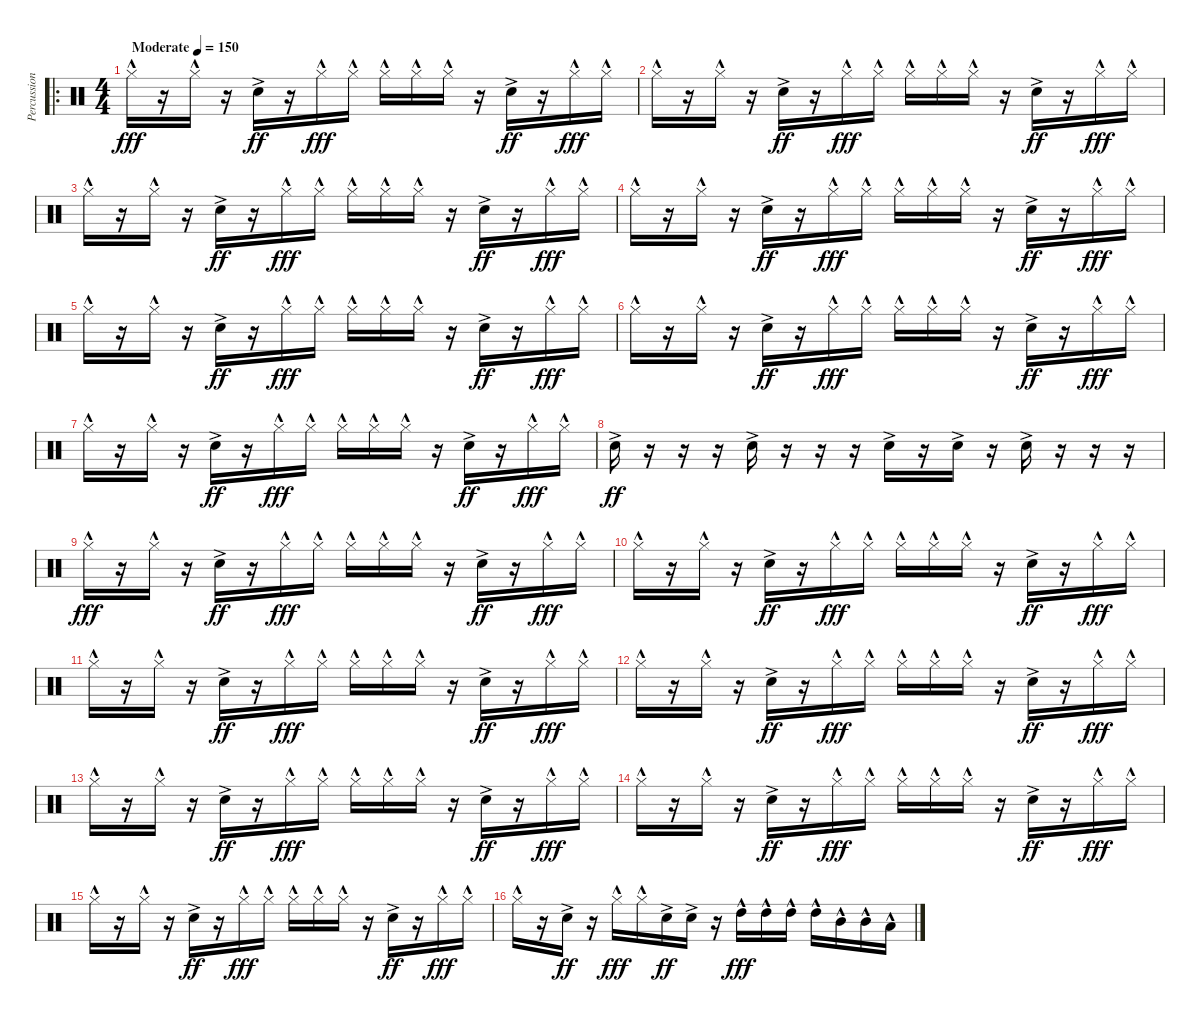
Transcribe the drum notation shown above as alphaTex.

\track ("Percussion" "Percussion") {instrument percussion}
\staff {score}
\articulation defaults
\ro
\ts (4 4)
\tempo (150 "Moderate")
\tempo 151
\tempo (150 "Moderate")
\clef neutral
\ks c "Hi-Hat (closed)"{hac}.16{dy fff}
r.16 "Hi-Hat (closed)"{hac}.16 r.16 "Snare (hit) 2"{ac}.16{dy ff} r.16 "Hi-Hat (closed)"{hac}.16{dy fff} "Hi-Hat (closed)"{hac}.16 "Hi-Hat (closed)"{hac}.16 "Hi-Hat (closed)"{hac}.16 "Hi-Hat (closed)"{hac}.16 r.16 "Snare (hit) 2"{ac}.16{dy ff} r.16 "Hi-Hat (closed)"{hac}.16{dy fff} "Hi-Hat (closed)"{hac}.16 |
"Hi-Hat (closed)"{hac}.16 r.16 "Hi-Hat (closed)"{hac}.16 r.16 "Snare (hit) 2"{ac}.16{dy ff} r.16 "Hi-Hat (closed)"{hac}.16{dy fff} "Hi-Hat (closed)"{hac}.16 "Hi-Hat (closed)"{hac}.16 "Hi-Hat (closed)"{hac}.16 "Hi-Hat (closed)"{hac}.16 r.16 "Snare (hit) 2"{ac}.16{dy ff} r.16 "Hi-Hat (closed)"{hac}.16{dy fff} "Hi-Hat (closed)"{hac}.16 |
"Hi-Hat (closed)"{hac}.16 r.16 "Hi-Hat (closed)"{hac}.16 r.16 "Snare (hit) 2"{ac}.16{dy ff} r.16 "Hi-Hat (closed)"{hac}.16{dy fff} "Hi-Hat (closed)"{hac}.16 "Hi-Hat (closed)"{hac}.16 "Hi-Hat (closed)"{hac}.16 "Hi-Hat (closed)"{hac}.16 r.16 "Snare (hit) 2"{ac}.16{dy ff} r.16 "Hi-Hat (closed)"{hac}.16{dy fff} "Hi-Hat (closed)"{hac}.16 |
"Hi-Hat (closed)"{hac}.16 r.16 "Hi-Hat (closed)"{hac}.16 r.16 "Snare (hit) 2"{ac}.16{dy ff} r.16 "Hi-Hat (closed)"{hac}.16{dy fff} "Hi-Hat (closed)"{hac}.16 "Hi-Hat (closed)"{hac}.16 "Hi-Hat (closed)"{hac}.16 "Hi-Hat (closed)"{hac}.16 r.16 "Snare (hit) 2"{ac}.16{dy ff} r.16 "Hi-Hat (closed)"{hac}.16{dy fff} "Hi-Hat (closed)"{hac}.16 |
"Hi-Hat (closed)"{hac}.16 r.16 "Hi-Hat (closed)"{hac}.16 r.16 "Snare (hit) 2"{ac}.16{dy ff} r.16 "Hi-Hat (closed)"{hac}.16{dy fff} "Hi-Hat (closed)"{hac}.16 "Hi-Hat (closed)"{hac}.16 "Hi-Hat (closed)"{hac}.16 "Hi-Hat (closed)"{hac}.16 r.16 "Snare (hit) 2"{ac}.16{dy ff} r.16 "Hi-Hat (closed)"{hac}.16{dy fff} "Hi-Hat (closed)"{hac}.16 |
"Hi-Hat (closed)"{hac}.16 r.16 "Hi-Hat (closed)"{hac}.16 r.16 "Snare (hit) 2"{ac}.16{dy ff} r.16 "Hi-Hat (closed)"{hac}.16{dy fff} "Hi-Hat (closed)"{hac}.16 "Hi-Hat (closed)"{hac}.16 "Hi-Hat (closed)"{hac}.16 "Hi-Hat (closed)"{hac}.16 r.16 "Snare (hit) 2"{ac}.16{dy ff} r.16 "Hi-Hat (closed)"{hac}.16{dy fff} "Hi-Hat (closed)"{hac}.16 |
"Hi-Hat (closed)"{hac}.16 r.16 "Hi-Hat (closed)"{hac}.16 r.16 "Snare (hit) 2"{ac}.16{dy ff} r.16 "Hi-Hat (closed)"{hac}.16{dy fff} "Hi-Hat (closed)"{hac}.16 "Hi-Hat (closed)"{hac}.16 "Hi-Hat (closed)"{hac}.16 "Hi-Hat (closed)"{hac}.16 r.16 "Snare (hit) 2"{ac}.16{dy ff} r.16 "Hi-Hat (closed)"{hac}.16{dy fff} "Hi-Hat (closed)"{hac}.16 |
"Snare (hit) 2"{ac}.16{dy ff} r.16 r.16 r.16 "Snare (hit) 2"{ac}.16 r.16 r.16 r.16 "Snare (hit) 2"{ac}.16 r.16 "Snare (hit) 2"{ac}.16 r.16 "Snare (hit) 2"{ac}.16 r.16 r.16 r.16 |
"Hi-Hat (closed)"{hac}.16{dy fff} r.16 "Hi-Hat (closed)"{hac}.16 r.16 "Snare (hit) 2"{ac}.16{dy ff} r.16 "Hi-Hat (closed)"{hac}.16{dy fff} "Hi-Hat (closed)"{hac}.16 "Hi-Hat (closed)"{hac}.16 "Hi-Hat (closed)"{hac}.16 "Hi-Hat (closed)"{hac}.16 r.16 "Snare (hit) 2"{ac}.16{dy ff} r.16 "Hi-Hat (closed)"{hac}.16{dy fff} "Hi-Hat (closed)"{hac}.16 |
"Hi-Hat (closed)"{hac}.16 r.16 "Hi-Hat (closed)"{hac}.16 r.16 "Snare (hit) 2"{ac}.16{dy ff} r.16 "Hi-Hat (closed)"{hac}.16{dy fff} "Hi-Hat (closed)"{hac}.16 "Hi-Hat (closed)"{hac}.16 "Hi-Hat (closed)"{hac}.16 "Hi-Hat (closed)"{hac}.16 r.16 "Snare (hit) 2"{ac}.16{dy ff} r.16 "Hi-Hat (closed)"{hac}.16{dy fff} "Hi-Hat (closed)"{hac}.16 |
"Hi-Hat (closed)"{hac}.16 r.16 "Hi-Hat (closed)"{hac}.16 r.16 "Snare (hit) 2"{ac}.16{dy ff} r.16 "Hi-Hat (closed)"{hac}.16{dy fff} "Hi-Hat (closed)"{hac}.16 "Hi-Hat (closed)"{hac}.16 "Hi-Hat (closed)"{hac}.16 "Hi-Hat (closed)"{hac}.16 r.16 "Snare (hit) 2"{ac}.16{dy ff} r.16 "Hi-Hat (closed)"{hac}.16{dy fff} "Hi-Hat (closed)"{hac}.16 |
"Hi-Hat (closed)"{hac}.16 r.16 "Hi-Hat (closed)"{hac}.16 r.16 "Snare (hit) 2"{ac}.16{dy ff} r.16 "Hi-Hat (closed)"{hac}.16{dy fff} "Hi-Hat (closed)"{hac}.16 "Hi-Hat (closed)"{hac}.16 "Hi-Hat (closed)"{hac}.16 "Hi-Hat (closed)"{hac}.16 r.16 "Snare (hit) 2"{ac}.16{dy ff} r.16 "Hi-Hat (closed)"{hac}.16{dy fff} "Hi-Hat (closed)"{hac}.16 |
"Hi-Hat (closed)"{hac}.16 r.16 "Hi-Hat (closed)"{hac}.16 r.16 "Snare (hit) 2"{ac}.16{dy ff} r.16 "Hi-Hat (closed)"{hac}.16{dy fff} "Hi-Hat (closed)"{hac}.16 "Hi-Hat (closed)"{hac}.16 "Hi-Hat (closed)"{hac}.16 "Hi-Hat (closed)"{hac}.16 r.16 "Snare (hit) 2"{ac}.16{dy ff} r.16 "Hi-Hat (closed)"{hac}.16{dy fff} "Hi-Hat (closed)"{hac}.16 |
"Hi-Hat (closed)"{hac}.16 r.16 "Hi-Hat (closed)"{hac}.16 r.16 "Snare (hit) 2"{ac}.16{dy ff} r.16 "Hi-Hat (closed)"{hac}.16{dy fff} "Hi-Hat (closed)"{hac}.16 "Hi-Hat (closed)"{hac}.16 "Hi-Hat (closed)"{hac}.16 "Hi-Hat (closed)"{hac}.16 r.16 "Snare (hit) 2"{ac}.16{dy ff} r.16 "Hi-Hat (closed)"{hac}.16{dy fff} "Hi-Hat (closed)"{hac}.16 |
"Hi-Hat (closed)"{hac}.16 r.16 "Hi-Hat (closed)"{hac}.16 r.16 "Snare (hit) 2"{ac}.16{dy ff} r.16 "Hi-Hat (closed)"{hac}.16{dy fff} "Hi-Hat (closed)"{hac}.16 "Hi-Hat (closed)"{hac}.16 "Hi-Hat (closed)"{hac}.16 "Hi-Hat (closed)"{hac}.16 r.16 "Snare (hit) 2"{ac}.16{dy ff} r.16 "Hi-Hat (closed)"{hac}.16{dy fff} "Hi-Hat (closed)"{hac}.16 |
"Hi-Hat (closed)"{hac}.16 r.16 "Snare (hit) 2"{ac}.16{dy ff} r.16 "Hi-Hat (closed)"{hac}.16{dy fff} "Hi-Hat (closed)"{hac}.16 "Snare (hit) 2"{ac}.16{dy ff} "Snare (hit) 2"{ac}.16 r.16 "High Tom (hit)"{hac}.16{dy fff} "High Tom (hit)"{hac}.16 "High Tom (hit)"{hac}.16 "High Tom (hit)"{hac}.16 "Mid Tom (hit)"{hac}.16 "Mid Tom (hit)"{hac}.16 "Low Tom (hit)"{hac}.16
